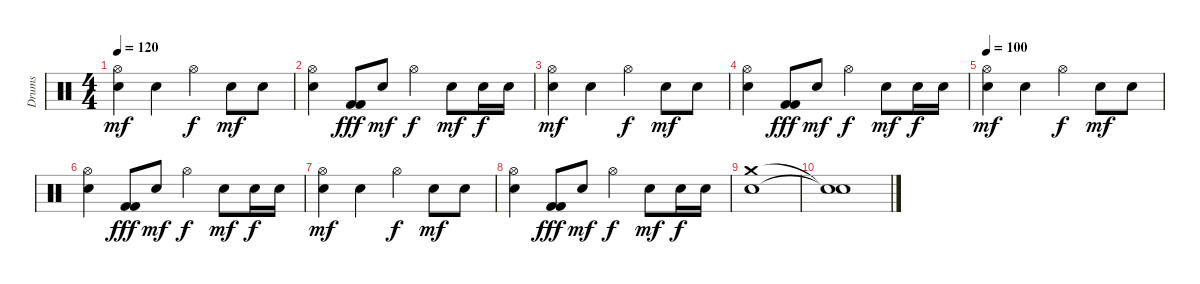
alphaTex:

\track ("Drums" "Drums") {instrument percussion}
\staff {score}
\articulation defaults
\ts (4 4)
\tempo 120
\clef neutral
\ks c
("Electric Snare (hit)" "Hi-Hat (open)").4{dy mf} "Electric Snare (hit)".4 "Hi-Hat (open)".4{dy f} "Electric Snare (hit)".8{dy mf} "Electric Snare (hit)".8 |
("Electric Snare (hit)" "Hi-Hat (open)").4 ("Kick (hit) 2" "Kick (hit) 2").8{dy fff} "Electric Snare (hit)".8{dy mf} "Hi-Hat (open)".4{dy f} "Electric Snare (hit)".8{dy mf} "Electric Snare (hit)".16{dy f} "Electric Snare (hit)".16 |
("Electric Snare (hit)" "Hi-Hat (open)").4{dy mf} "Electric Snare (hit)".4 "Hi-Hat (open)".4{dy f} "Electric Snare (hit)".8{dy mf} "Electric Snare (hit)".8 |
("Electric Snare (hit)" "Hi-Hat (open)").4 ("Kick (hit) 2" "Kick (hit) 2").8{dy fff} "Electric Snare (hit)".8{dy mf} "Hi-Hat (open)".4{dy f} "Electric Snare (hit)".8{dy mf} "Electric Snare (hit)".16{dy f} "Electric Snare (hit)".16 |
\tempo 100
("Electric Snare (hit)" "Hi-Hat (open)").4{dy mf} "Electric Snare (hit)".4 "Hi-Hat (open)".4{dy f} "Electric Snare (hit)".8{dy mf} "Electric Snare (hit)".8 |
("Electric Snare (hit)" "Hi-Hat (open)").4 ("Kick (hit) 2" "Kick (hit) 2").8{dy fff} "Electric Snare (hit)".8{dy mf} "Hi-Hat (open)".4{dy f} "Electric Snare (hit)".8{dy mf} "Electric Snare (hit)".16{dy f} "Electric Snare (hit)".16 |
("Electric Snare (hit)" "Hi-Hat (open)").4{dy mf} "Electric Snare (hit)".4 "Hi-Hat (open)".4{dy f} "Electric Snare (hit)".8{dy mf} "Electric Snare (hit)".8 |
("Electric Snare (hit)" "Hi-Hat (open)").4 ("Kick (hit) 2" "Kick (hit) 2").8{dy fff} "Electric Snare (hit)".8{dy mf} "Hi-Hat (open)".4{dy f} "Electric Snare (hit)".8{dy mf} "Electric Snare (hit)".16{dy f} "Electric Snare (hit)".16 |
("Electric Snare (hit)" "Crash medium (hit)").1 |
("Snare (hit)"{t} "Snare (hit)"{t}).1
